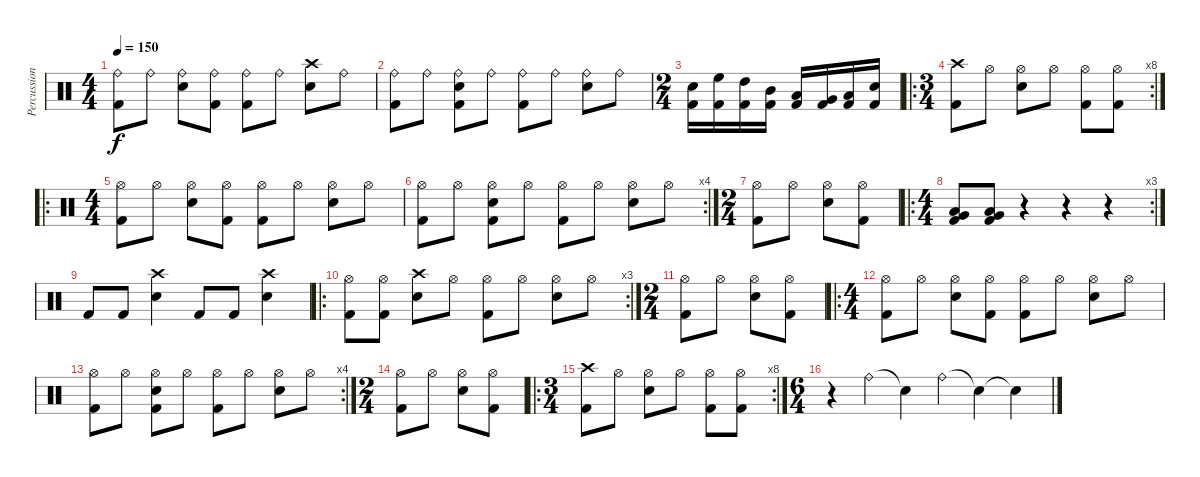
\track ("Percussion" "Percussion") {instrument percussion}
\staff {score}
\articulation defaults
\ts (4 4)
\tempo 150
\clef neutral
\ks c
("Ride (bell)" "Kick (hit) 2").8{dy f} "Ride (bell)".8 ("Ride (bell)" "Electric Snare (hit)").8 ("Ride (bell)" "Kick (hit) 2").8 ("Ride (bell)" "Kick (hit) 2").8 "Ride (bell)".8 ("Crash high (hit)" "Electric Snare (hit)").8 "Ride (bell)".8 |
("Ride (bell)" "Kick (hit) 2").8 "Ride (bell)".8 ("Ride (bell)" "Electric Snare (hit)" "Kick (hit) 2").8 "Ride (bell)".8 ("Ride (bell)" "Kick (hit) 2").8 "Ride (bell)".8 ("Ride (bell)" "Electric Snare (hit)").8 "Ride (bell)".8 |
\ts (2 4)
("Electric Snare (hit)" "Kick (hit) 2").16 ("High Floor Tom (hit)" "Kick (hit) 2").16 ("High Tom (hit)" "Kick (hit) 2").16 ("Mid Tom (hit)" "Kick (hit) 2").16 ("Low Tom (hit)" "Kick (hit) 2").16 ("Very Low Tom (hit)" "Kick (hit) 2").16 ("Low Floor Tom (hit)" "Kick (hit) 2").16 ("Electric Snare (hit)" "Kick (hit) 2").16 |
\ro
\rc 8
\ts (3 4)
("Crash high (hit)" "Kick (hit) 2").8 "Hi-Hat (open)".8 ("Hi-Hat (open)" "Electric Snare (hit)").8 "Hi-Hat (open)".8 ("Hi-Hat (open)" "Kick (hit) 2").8 ("Hi-Hat (open)" "Kick (hit) 2").8 |
\ro
\ts (4 4)
("Hi-Hat (open)" "Kick (hit) 2").8 "Hi-Hat (open)".8 ("Hi-Hat (open)" "Electric Snare (hit)").8 ("Hi-Hat (open)" "Kick (hit) 2").8 ("Hi-Hat (open)" "Kick (hit) 2").8 "Hi-Hat (open)".8 ("Hi-Hat (open)" "Electric Snare (hit)").8 "Hi-Hat (open)".8 |
\rc 4
("Hi-Hat (open)" "Kick (hit) 2").8 "Hi-Hat (open)".8 ("Hi-Hat (open)" "Electric Snare (hit)" "Kick (hit) 2").8 "Hi-Hat (open)".8 ("Hi-Hat (open)" "Kick (hit) 2").8 "Hi-Hat (open)".8 ("Hi-Hat (open)" "Electric Snare (hit)").8 "Hi-Hat (open)".8 |
\ts (2 4)
("Hi-Hat (open)" "Kick (hit) 2").8 "Hi-Hat (open)".8 ("Hi-Hat (open)" "Electric Snare (hit)").8 ("Hi-Hat (open)" "Kick (hit) 2").8 |
\ro
\rc 3
\ts (4 4)
("Low Tom (hit)" "Very Low Tom (hit)" "Kick (hit) 2").8 ("Low Tom (hit)" "Very Low Tom (hit)" "Kick (hit) 2").8 r.4 r.4 r.4 |
"Kick (hit) 2".8 "Kick (hit) 2".8 ("Crash high (hit)" "Electric Snare (hit)").4 "Kick (hit) 2".8 "Kick (hit) 2".8 ("Crash high (hit)" "Electric Snare (hit)").4 |
\ro
\rc 3
("Hi-Hat (open)" "Kick (hit) 2").8 ("Hi-Hat (open)" "Kick (hit) 2").8 ("Crash high (hit)" "Electric Snare (hit)").8 "Hi-Hat (open)".8 ("Hi-Hat (open)" "Kick (hit) 2").8 "Hi-Hat (open)".8 ("Hi-Hat (open)" "Electric Snare (hit)").8 "Hi-Hat (open)".8 |
\ts (2 4)
("Hi-Hat (open)" "Kick (hit) 2").8 "Hi-Hat (open)".8 ("Hi-Hat (open)" "Electric Snare (hit)").8 ("Hi-Hat (open)" "Kick (hit) 2").8 |
\ro
\ts (4 4)
("Hi-Hat (open)" "Kick (hit) 2").8 "Hi-Hat (open)".8 ("Hi-Hat (open)" "Electric Snare (hit)").8 ("Hi-Hat (open)" "Kick (hit) 2").8 ("Hi-Hat (open)" "Kick (hit) 2").8 "Hi-Hat (open)".8 ("Hi-Hat (open)" "Electric Snare (hit)").8 "Hi-Hat (open)".8 |
\rc 4
("Hi-Hat (open)" "Kick (hit) 2").8 "Hi-Hat (open)".8 ("Hi-Hat (open)" "Electric Snare (hit)" "Kick (hit) 2").8 "Hi-Hat (open)".8 ("Hi-Hat (open)" "Kick (hit) 2").8 "Hi-Hat (open)".8 ("Hi-Hat (open)" "Electric Snare (hit)").8 "Hi-Hat (open)".8 |
\ts (2 4)
("Hi-Hat (open)" "Kick (hit) 2").8 "Hi-Hat (open)".8 ("Hi-Hat (open)" "Electric Snare (hit)").8 ("Hi-Hat (open)" "Kick (hit) 2").8 |
\ro
\rc 8
\ts (3 4)
("Crash high (hit)" "Kick (hit) 2").8 "Hi-Hat (open)".8 ("Hi-Hat (open)" "Electric Snare (hit)").8 "Hi-Hat (open)".8 ("Hi-Hat (open)" "Kick (hit) 2").8 ("Hi-Hat (open)" "Kick (hit) 2").8 |
\ts (6 4)
r.4 "Ride (bell)".4 "Snare (hit)"{t}.4 "Ride (bell)".4 "Snare (hit)"{t}.4 "Snare (hit)"{t}.4
